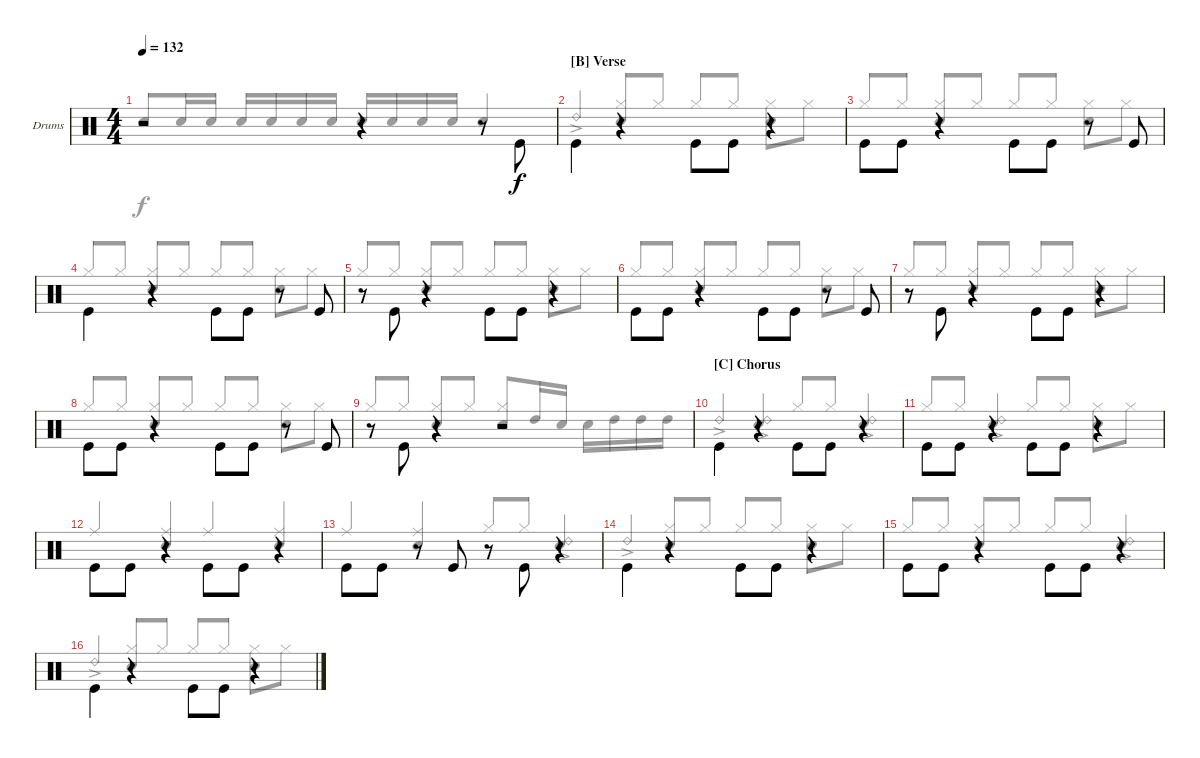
\bracketExtendMode groupsimilarinstruments
\firstSystemTrackNameOrientation horizontal
\otherSystemsTrackNameOrientation horizontal
\track ("Drum" "Drums") {instrument percussion}
\staff {score}
\articulation defaults
\voice
\ts (4 4)
\tempo 132
\clef neutral
\scale
1.02648
\ks aminor
r.2{dy f} r.4 r.8 "Kick (hit)".8{beam invert} |
\section ("B" "Verse")
\scale
0.973518 "Kick (hit)".4{beam invert} r.4 "Kick (hit)".8{beam invert} "Kick (hit)".8 r.4{beam invert} |
\scale
1.02648 "Kick (hit)".8{beam invert} "Kick (hit)".8 r.4{beam invert} "Kick (hit)".8{beam invert} "Kick (hit)".8 r.8 "Kick (hit)".8 |
\scale
0.973518 "Kick (hit)".4{beam invert} r.4 "Kick (hit)".8{beam invert} "Kick (hit)".8 r.8 "Kick (hit)".8 |
\scale
1.02648 r.8 "Kick (hit)".8{beam invert} r.4{beam invert} "Kick (hit)".8{beam invert} "Kick (hit)".8 r.4 |
\scale
0.973518 "Kick (hit)".8{beam invert} "Kick (hit)".8 r.4{beam invert} "Kick (hit)".8{beam invert} "Kick (hit)".8 r.8 "Kick (hit)".8 |
\scale
1.02648 r.8 "Kick (hit)".8{beam invert} r.4{beam invert} "Kick (hit)".8{beam invert} "Kick (hit)".8 r.4 |
\scale
0.973518 "Kick (hit)".8{beam invert} "Kick (hit)".8 r.4{beam invert} "Kick (hit)".8{beam invert} "Kick (hit)".8 r.8 "Kick (hit)".8 |
\scale
1.02648 r.8 "Kick (hit)".8{beam invert} r.4{beam invert} r.2 |
\section ("C" "Chorus")
\scale
1.05675 "Kick (hit)".4{beam invert} r.4{beam invert} "Kick (hit)".8{beam invert} "Kick (hit)".8 r.4 |
\scale
0.943253 "Kick (hit)".8{beam invert} "Kick (hit)".8 r.4 "Kick (hit)".8{beam invert} "Kick (hit)".8 r.4 |
\scale
1.02648 "Kick (hit)".8{beam invert} "Kick (hit)".8 r.4 "Kick (hit)".8{beam invert} "Kick (hit)".8 r.4 |
\scale
0.973518 "Kick (hit)".8{beam invert} "Kick (hit)".8 r.8 "Kick (hit)".8 r.8 "Kick (hit)".8{beam invert} r.4 |
\scale
1.02648 "Kick (hit)".4{beam invert} r.4{beam invert} "Kick (hit)".8{beam invert} "Kick (hit)".8 r.4 |
\scale
0.973518 "Kick (hit)".8{beam invert} "Kick (hit)".8 r.4 "Kick (hit)".8{beam invert} "Kick (hit)".8 r.4 |
\scale
1.02648 "Kick (hit)".4{beam invert} r.4{beam invert} "Kick (hit)".8{beam invert} "Kick (hit)".8 r.4
\voice
\clef neutral
\ottava regular
\simile none
\scale
1.02648
\ks aminor "Snare (hit) 2".8{dy f beam invert} "Snare (hit) 2".16 "Snare (hit) 2".16 "Snare (hit) 2".16 "Snare (hit) 2".16 "Snare (hit) 2".16 "Snare (hit) 2".16 "Snare (hit) 2".16{beam invert} "Snare (hit) 2".16 "Snare (hit) 2".16 "Snare (hit) 2".16 "Snare (hit) 2".4{beam invert}
|
\scale
0.973518 "Ride (bell) 2"{ac}.4{beam invert} ("Hi-Hat (closed)" "Snare (hit) 2").8{beam invert} "Hi-Hat (closed)".8 "Hi-Hat (closed)".8{beam invert} "Hi-Hat (closed)".8 ("Hi-Hat (closed)" "Snare (hit) 2").8 "Hi-Hat (closed)".8 |
\scale
1.02648 "Hi-Hat (closed)".8{beam invert} "Hi-Hat (closed)".8 ("Hi-Hat (closed)" "Snare (hit) 2").8 "Hi-Hat (closed)".8 "Hi-Hat (closed)".8{beam invert} "Hi-Hat (closed)".8 ("Hi-Hat (closed)" "Snare (hit) 2").8 "Hi-Hat (closed)".8 |
\scale
0.973518 "Hi-Hat (closed)".8{beam invert} "Hi-Hat (closed)".8 ("Hi-Hat (closed)" "Snare (hit) 2").8 "Hi-Hat (closed)".8 "Hi-Hat (closed)".8{beam invert} "Hi-Hat (closed)".8 ("Hi-Hat (closed)" "Snare (hit) 2").8 "Hi-Hat (closed)".8 |
\scale
1.02648 "Hi-Hat (closed)".8{beam invert} "Hi-Hat (closed)".8 ("Hi-Hat (closed)" "Snare (hit) 2").8 "Hi-Hat (closed)".8 "Hi-Hat (closed)".8{beam invert} "Hi-Hat (closed)".8 ("Hi-Hat (closed)" "Snare (hit) 2").8 "Hi-Hat (closed)".8 |
\scale
0.973518 "Hi-Hat (closed)".8{beam invert} "Hi-Hat (closed)".8 ("Hi-Hat (closed)" "Snare (hit) 2").8 "Hi-Hat (closed)".8 "Hi-Hat (closed)".8{beam invert} "Hi-Hat (closed)".8 ("Hi-Hat (closed)" "Snare (hit) 2").8 "Hi-Hat (closed)".8 |
\scale
1.02648 "Hi-Hat (closed)".8{beam invert} "Hi-Hat (closed)".8 ("Hi-Hat (closed)" "Snare (hit) 2").8 "Hi-Hat (closed)".8 "Hi-Hat (closed)".8{beam invert} "Hi-Hat (closed)".8 ("Hi-Hat (closed)" "Snare (hit) 2").8 "Hi-Hat (closed)".8 |
\scale
0.973518 "Hi-Hat (closed)".8{beam invert} "Hi-Hat (closed)".8 ("Hi-Hat (closed)" "Snare (hit) 2").8 "Hi-Hat (closed)".8 "Hi-Hat (closed)".8{beam invert} "Hi-Hat (closed)".8 ("Hi-Hat (closed)" "Snare (hit) 2").8 "Hi-Hat (closed)".8 |
\scale
1.02648 "Hi-Hat (closed)".8{beam invert} "Hi-Hat (closed)".8 ("Hi-Hat (closed)" "Snare (hit) 2").8 "Hi-Hat (closed)".8 ("Hi-Hat (closed)" "Snare (hit) 2").8{beam invert} "High Tom (hit)".16 "Snare (hit) 2".16 "Snare (hit) 2".16 "High Tom (hit)".16 "High Tom (hit)".16 "High Tom (hit)".16 |
\scale
1.05675 "Ride (bell) 2"{ac}.4{beam invert} ("Ride (bell) 2"{ac} "Snare (hit) 2").4{beam invert} "Hi-Hat (closed)".8{beam invert} "Hi-Hat (closed)".8 ("Ride (bell) 2"{ac} "Snare (hit) 2").4{beam invert} |
\scale
0.943253 "Hi-Hat (closed)".8{beam invert} "Hi-Hat (closed)".8 ("Ride (bell) 2"{ac} "Snare (hit) 2").4{beam invert} "Hi-Hat (closed)".8{beam invert} "Hi-Hat (closed)".8 ("Hi-Hat (closed)" "Snare (hit) 2").8 "Hi-Hat (closed)".8 |
\scale
1.02648 "Ride (middle)".4{beam invert} ("Snare (hit) 2" "Ride (middle)").4{beam invert} "Ride (middle)".4{beam invert} ("Snare (hit) 2" "Ride (middle)").4{beam invert} |
\scale
0.973518 "Ride (middle)".4{beam invert} ("Snare (hit) 2" "Ride (middle)").4{beam invert} "Hi-Hat (closed)".8{beam invert} "Hi-Hat (closed)".8 ("Ride (bell) 2"{ac} "Snare (hit) 2").4{beam invert} |
\scale
1.02648 "Ride (bell) 2"{ac}.4{beam invert} ("Hi-Hat (closed)" "Snare (hit) 2").8{beam invert} "Hi-Hat (closed)".8 "Hi-Hat (closed)".8{beam invert} "Hi-Hat (closed)".8 ("Hi-Hat (closed)" "Snare (hit) 2").8 "Hi-Hat (closed)".8 |
\scale
0.973518 "Hi-Hat (closed)".8{beam invert} "Hi-Hat (closed)".8 ("Hi-Hat (closed)" "Snare (hit) 2").8 "Hi-Hat (closed)".8 "Hi-Hat (closed)".8{beam invert} "Hi-Hat (closed)".8 ("Ride (bell) 2"{ac} "Snare (hit) 2").4{beam invert} |
\scale
1.02648 "Ride (bell) 2"{ac}.4{beam invert} ("Hi-Hat (closed)" "Snare (hit) 2").8{beam invert} "Hi-Hat (closed)".8 "Hi-Hat (closed)".8{beam invert} "Hi-Hat (closed)".8 ("Hi-Hat (closed)" "Snare (hit) 2").8 "Hi-Hat (closed)".8
